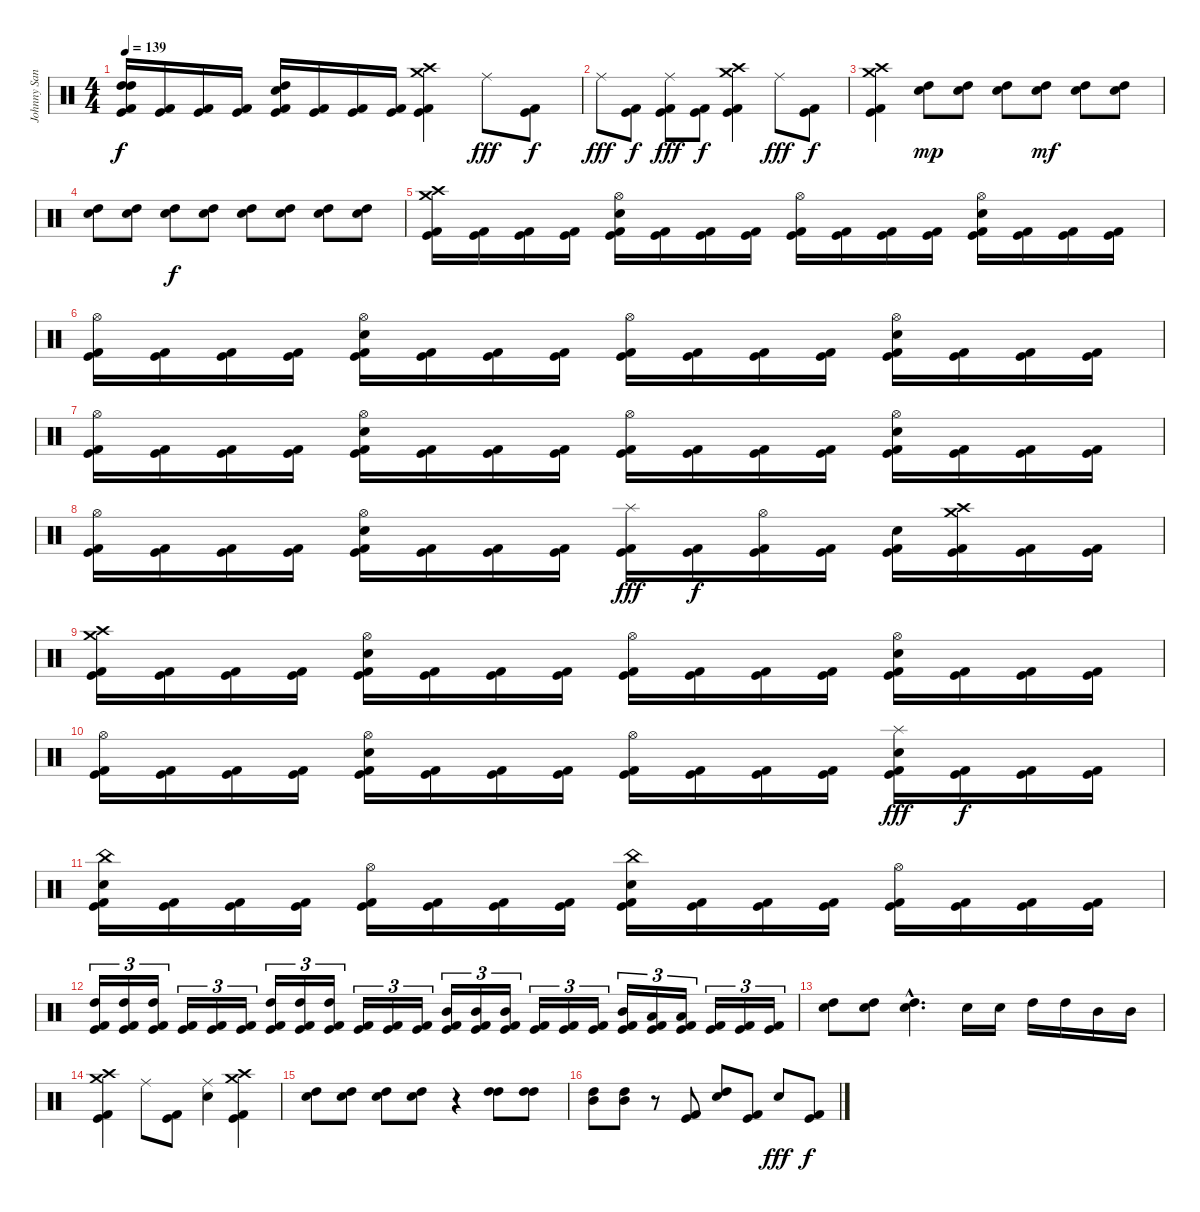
\track ("Johnny Sandin" "Johnny San") {instrument percussion}
\staff {score}
\articulation defaults
\ts (4 4)
\tempo 139
\clef neutral
\ks c
("High Tom (hit)" "High Tom (hit)" "Kick (hit)" "Kick (hit) 2").16{dy f} ("Kick (hit)" "Kick (hit) 2").16 ("Kick (hit)" "Kick (hit) 2").16 ("Kick (hit)" "Kick (hit) 2").16 ("High Tom (hit)" "Snare (hit) 2" "Kick (hit)" "Kick (hit) 2").16 ("Kick (hit)" "Kick (hit) 2").16 ("Kick (hit)" "Kick (hit) 2").16 ("Kick (hit)" "Kick (hit) 2").16 ("Crash medium (hit)" "Crash high (hit)" "Kick (hit)" "Kick (hit) 2").4 "Ride (middle)".8{dy fff} ("Kick (hit) 2" "Kick (hit)").8{dy f} |
"Ride (middle)".8{dy fff} ("Kick (hit) 2" "Kick (hit)").8{dy f} ("Ride (middle)" "Kick (hit) 2" "Kick (hit)").8{dy fff} ("Kick (hit) 2" "Kick (hit)").8{dy f} ("Crash medium (hit)" "Crash high (hit)" "Kick (hit)" "Kick (hit) 2").4 "Ride (middle)".8{dy fff} ("Kick (hit) 2" "Kick (hit)").8{dy f} |
("Crash medium (hit)" "Crash high (hit)" "Kick (hit) 2" "Kick (hit)").4 ("High Tom (hit)" "Snare (hit) 2").8{dy mp} ("High Tom (hit)" "Snare (hit) 2").8 ("High Tom (hit)" "Snare (hit) 2").8 ("High Tom (hit)" "Snare (hit) 2").8{dy mf} ("High Tom (hit)" "Snare (hit) 2").8 ("High Tom (hit)" "Snare (hit) 2").8 |
("High Tom (hit)" "Snare (hit) 2").8 ("High Tom (hit)" "Snare (hit) 2").8 ("High Tom (hit)" "Snare (hit) 2").8{dy f} ("High Tom (hit)" "Snare (hit) 2").8 ("High Tom (hit)" "Snare (hit) 2").8 ("High Tom (hit)" "Snare (hit) 2").8 ("High Tom (hit)" "Snare (hit) 2").8 ("High Tom (hit)" "Snare (hit) 2").8 |
("Crash medium (hit)" "Crash high (hit)" "Kick (hit) 2" "Kick (hit)").16 ("Kick (hit) 2" "Kick (hit)").16 ("Kick (hit) 2" "Kick (hit)").16 ("Kick (hit) 2" "Kick (hit)").16 ("Hi-Hat (open)" "Snare (hit) 2" "Kick (hit) 2" "Kick (hit)").16 ("Kick (hit) 2" "Kick (hit)").16 ("Kick (hit) 2" "Kick (hit)").16 ("Kick (hit) 2" "Kick (hit)").16 ("Hi-Hat (open)" "Kick (hit) 2" "Kick (hit)").16 ("Kick (hit) 2" "Kick (hit)").16 ("Kick (hit) 2" "Kick (hit)").16 ("Kick (hit) 2" "Kick (hit)").16 ("Hi-Hat (open)" "Snare (hit) 2" "Kick (hit) 2" "Kick (hit)").16 ("Kick (hit) 2" "Kick (hit)").16 ("Kick (hit) 2" "Kick (hit)").16 ("Kick (hit) 2" "Kick (hit)").16 |
("Hi-Hat (open)" "Kick (hit) 2" "Kick (hit)").16 ("Kick (hit) 2" "Kick (hit)").16 ("Kick (hit) 2" "Kick (hit)").16 ("Kick (hit) 2" "Kick (hit)").16 ("Hi-Hat (open)" "Snare (hit) 2" "Kick (hit) 2" "Kick (hit)").16 ("Kick (hit) 2" "Kick (hit)").16 ("Kick (hit) 2" "Kick (hit)").16 ("Kick (hit) 2" "Kick (hit)").16 ("Hi-Hat (open)" "Kick (hit) 2" "Kick (hit)").16 ("Kick (hit) 2" "Kick (hit)").16 ("Kick (hit) 2" "Kick (hit)").16 ("Kick (hit) 2" "Kick (hit)").16 ("Hi-Hat (open)" "Snare (hit) 2" "Kick (hit) 2" "Kick (hit)").16 ("Kick (hit) 2" "Kick (hit)").16 ("Kick (hit) 2" "Kick (hit)").16 ("Kick (hit) 2" "Kick (hit)").16 |
("Hi-Hat (open)" "Kick (hit) 2" "Kick (hit)").16 ("Kick (hit) 2" "Kick (hit)").16 ("Kick (hit) 2" "Kick (hit)").16 ("Kick (hit) 2" "Kick (hit)").16 ("Hi-Hat (open)" "Snare (hit) 2" "Kick (hit) 2" "Kick (hit)").16 ("Kick (hit) 2" "Kick (hit)").16 ("Kick (hit) 2" "Kick (hit)").16 ("Kick (hit) 2" "Kick (hit)").16 ("Hi-Hat (open)" "Kick (hit) 2" "Kick (hit)").16 ("Kick (hit) 2" "Kick (hit)").16 ("Kick (hit) 2" "Kick (hit)").16 ("Kick (hit) 2" "Kick (hit)").16 ("Hi-Hat (open)" "Snare (hit) 2" "Kick (hit) 2" "Kick (hit)").16 ("Kick (hit) 2" "Kick (hit)").16 ("Kick (hit) 2" "Kick (hit)").16 ("Kick (hit) 2" "Kick (hit)").16 |
("Hi-Hat (open)" "Kick (hit) 2" "Kick (hit)").16 ("Kick (hit) 2" "Kick (hit)").16 ("Kick (hit) 2" "Kick (hit)").16 ("Kick (hit) 2" "Kick (hit)").16 ("Hi-Hat (open)" "Snare (hit) 2" "Kick (hit) 2" "Kick (hit)").16 ("Kick (hit) 2" "Kick (hit)").16 ("Kick (hit) 2" "Kick (hit)").16 ("Kick (hit) 2" "Kick (hit)").16 ("Splash (hit)" "Kick (hit) 2" "Kick (hit)").16{dy fff} ("Kick (hit) 2" "Kick (hit)").16{dy f} ("Hi-Hat (open)" "Kick (hit) 2" "Kick (hit)").16 ("Kick (hit) 2" "Kick (hit)").16 ("Snare (hit) 2" "Kick (hit) 2" "Kick (hit)").16 ("Crash medium (hit)" "Crash high (hit)" "Kick (hit) 2" "Kick (hit)").16 ("Kick (hit) 2" "Kick (hit)").16 ("Kick (hit) 2" "Kick (hit)").16 |
("Crash medium (hit)" "Crash high (hit)" "Kick (hit) 2" "Kick (hit)").16 ("Kick (hit) 2" "Kick (hit)").16 ("Kick (hit) 2" "Kick (hit)").16 ("Kick (hit) 2" "Kick (hit)").16 ("Hi-Hat (open)" "Snare (hit) 2" "Kick (hit) 2" "Kick (hit)").16 ("Kick (hit) 2" "Kick (hit)").16 ("Kick (hit) 2" "Kick (hit)").16 ("Kick (hit) 2" "Kick (hit)").16 ("Hi-Hat (open)" "Kick (hit) 2" "Kick (hit)").16 ("Kick (hit) 2" "Kick (hit)").16 ("Kick (hit) 2" "Kick (hit)").16 ("Kick (hit) 2" "Kick (hit)").16 ("Hi-Hat (open)" "Snare (hit) 2" "Kick (hit) 2" "Kick (hit)").16 ("Kick (hit) 2" "Kick (hit)").16 ("Kick (hit) 2" "Kick (hit)").16 ("Kick (hit) 2" "Kick (hit)").16 |
("Hi-Hat (open)" "Kick (hit) 2" "Kick (hit)").16 ("Kick (hit) 2" "Kick (hit)").16 ("Kick (hit) 2" "Kick (hit)").16 ("Kick (hit) 2" "Kick (hit)").16 ("Hi-Hat (open)" "Snare (hit) 2" "Kick (hit) 2" "Kick (hit)").16 ("Kick (hit) 2" "Kick (hit)").16 ("Kick (hit) 2" "Kick (hit)").16 ("Kick (hit) 2" "Kick (hit)").16 ("Hi-Hat (open)" "Kick (hit) 2" "Kick (hit)").16 ("Kick (hit) 2" "Kick (hit)").16 ("Kick (hit) 2" "Kick (hit)").16 ("Kick (hit) 2" "Kick (hit)").16 ("Splash (hit)" "Snare (hit) 2" "Kick (hit) 2" "Kick (hit)").16{dy fff} ("Kick (hit) 2" "Kick (hit)").16{dy f} ("Kick (hit) 2" "Kick (hit)").16 ("Kick (hit) 2" "Kick (hit)").16 |
("China (hit)" "Snare (hit) 2" "Kick (hit) 2" "Kick (hit)").16 ("Kick (hit) 2" "Kick (hit)").16 ("Kick (hit) 2" "Kick (hit)").16 ("Kick (hit) 2" "Kick (hit)").16 ("Hi-Hat (open)" "Kick (hit) 2" "Kick (hit)").16 ("Kick (hit) 2" "Kick (hit)").16 ("Kick (hit) 2" "Kick (hit)").16 ("Kick (hit) 2" "Kick (hit)").16 ("China (hit)" "Snare (hit) 2" "Kick (hit) 2" "Kick (hit)").16 ("Kick (hit) 2" "Kick (hit)").16 ("Kick (hit) 2" "Kick (hit)").16 ("Kick (hit) 2" "Kick (hit)").16 ("Hi-Hat (open)" "Kick (hit) 2" "Kick (hit)").16 ("Kick (hit) 2" "Kick (hit)").16 ("Kick (hit) 2" "Kick (hit)").16 ("Kick (hit) 2" "Kick (hit)").16 |
("High Tom (hit)" "Kick (hit) 2" "Kick (hit)").16{tu (3 2)} ("High Tom (hit)" "Kick (hit) 2" "Kick (hit)").16{tu (3 2)} ("High Tom (hit)" "Kick (hit) 2" "Kick (hit)").16{tu (3 2)} ("Kick (hit) 2" "Kick (hit)").16{tu (3 2)} ("Kick (hit) 2" "Kick (hit)").16{tu (3 2)} ("Kick (hit) 2" "Kick (hit)").16{tu (3 2)} ("High Tom (hit)" "Kick (hit) 2" "Kick (hit)").16{tu (3 2)} ("High Tom (hit)" "Kick (hit) 2" "Kick (hit)").16{tu (3 2)} ("High Tom (hit)" "Kick (hit) 2" "Kick (hit)").16{tu (3 2)} ("Kick (hit) 2" "Kick (hit)").16{tu (3 2)} ("Kick (hit) 2" "Kick (hit)").16{tu (3 2)} ("Kick (hit) 2" "Kick (hit)").16{tu (3 2)} ("Mid Tom (hit)" "Kick (hit) 2" "Kick (hit)").16{tu (3 2)} ("Mid Tom (hit)" "Kick (hit) 2" "Kick (hit)").16{tu (3 2)} ("Mid Tom (hit)" "Kick (hit) 2" "Kick (hit)").16{tu (3 2)} ("Kick (hit) 2" "Kick (hit)").16{tu (3 2)} ("Kick (hit) 2" "Kick (hit)").16{tu (3 2)} ("Kick (hit) 2" "Kick (hit)").16{tu (3 2)} ("Mid Tom (hit)" "Kick (hit) 2" "Kick (hit)").16{tu (3 2)} ("Low Tom (hit)" "Kick (hit) 2" "Kick (hit)").16{tu (3 2)} ("Low Tom (hit)" "Kick (hit) 2" "Kick (hit)").16{tu (3 2)} ("Kick (hit) 2" "Kick (hit)").16{tu (3 2)} ("Kick (hit) 2" "Kick (hit)").16{tu (3 2)} ("Kick (hit) 2" "Kick (hit)").16{tu (3 2)} |
("High Tom (hit)" "Snare (hit) 2").8 ("High Tom (hit)" "Snare (hit) 2").8 ("High Tom (hit)"{hac} "Snare (hit) 2"{hac}).4{d} "Snare (hit) 2".16 "Snare (hit) 2".16 "High Tom (hit)".16 "High Tom (hit)".16 "Mid Tom (hit)".16 "Mid Tom (hit)".16 |
("Crash medium (hit)" "Crash high (hit)" "Kick (hit) 2" "Kick (hit)").4 "Ride (middle)".8 ("Kick (hit) 2" "Kick (hit)").8 ("Ride (middle)" "Snare (hit) 2").4 ("Crash medium (hit)" "Crash high (hit)" "Kick (hit) 2" "Kick (hit)").4 |
("High Tom (hit)" "Snare (hit) 2").8 ("High Tom (hit)" "Snare (hit) 2").8 ("High Tom (hit)" "Snare (hit) 2").8 ("High Tom (hit)" "Snare (hit) 2").8 r.4 ("High Tom (hit)" "High Tom (hit)").8 ("High Tom (hit)" "High Tom (hit)").8 |
("Mid Tom (hit)" "High Tom (hit)").8 ("Mid Tom (hit)" "High Tom (hit)").8 r.8 ("Kick (hit) 2" "Kick (hit)").8 ("High Tom (hit)" "Snare (hit) 2").8 ("Kick (hit) 2" "Kick (hit)").8 "Snare (hit) 2".8{dy fff} ("Kick (hit) 2" "Kick (hit)").8{dy f}
